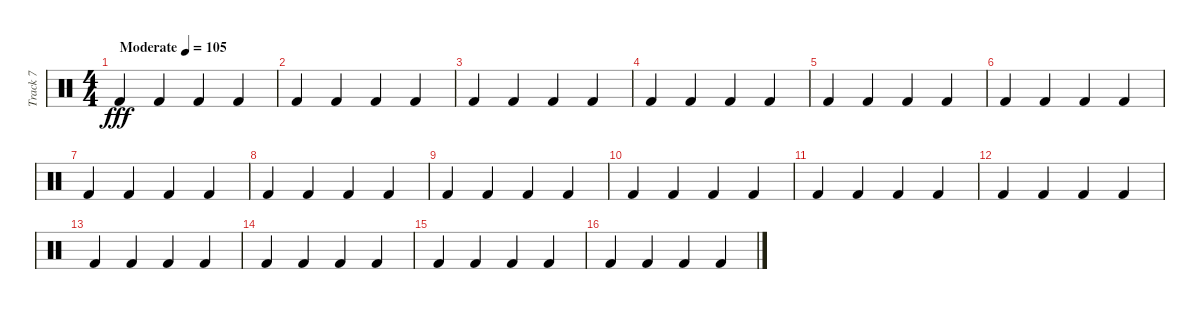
\track ("Track 7" "Track 7") {instrument percussion}
\staff {score}
\articulation defaults
\ts (4 4)
\tempo (105 "Moderate")
\clef neutral
\ks c "Kick (hit) 2".4{dy fff} "Kick (hit) 2".4 "Kick (hit) 2".4 "Kick (hit) 2".4
|
"Kick (hit) 2".4 "Kick (hit) 2".4 "Kick (hit) 2".4 "Kick (hit) 2".4 |
"Kick (hit) 2".4 "Kick (hit) 2".4 "Kick (hit) 2".4 "Kick (hit) 2".4 |
"Kick (hit) 2".4 "Kick (hit) 2".4 "Kick (hit) 2".4 "Kick (hit) 2".4 |
"Kick (hit) 2".4 "Kick (hit) 2".4 "Kick (hit) 2".4 "Kick (hit) 2".4 |
"Kick (hit) 2".4 "Kick (hit) 2".4 "Kick (hit) 2".4 "Kick (hit) 2".4 |
"Kick (hit) 2".4 "Kick (hit) 2".4 "Kick (hit) 2".4 "Kick (hit) 2".4 |
"Kick (hit) 2".4 "Kick (hit) 2".4 "Kick (hit) 2".4 "Kick (hit) 2".4 |
"Kick (hit) 2".4 "Kick (hit) 2".4 "Kick (hit) 2".4 "Kick (hit) 2".4 |
"Kick (hit) 2".4 "Kick (hit) 2".4 "Kick (hit) 2".4 "Kick (hit) 2".4 |
"Kick (hit) 2".4 "Kick (hit) 2".4 "Kick (hit) 2".4 "Kick (hit) 2".4 |
"Kick (hit) 2".4 "Kick (hit) 2".4 "Kick (hit) 2".4 "Kick (hit) 2".4 |
"Kick (hit) 2".4 "Kick (hit) 2".4 "Kick (hit) 2".4 "Kick (hit) 2".4 |
"Kick (hit) 2".4 "Kick (hit) 2".4 "Kick (hit) 2".4 "Kick (hit) 2".4 |
"Kick (hit) 2".4 "Kick (hit) 2".4 "Kick (hit) 2".4 "Kick (hit) 2".4 |
"Kick (hit) 2".4 "Kick (hit) 2".4 "Kick (hit) 2".4 "Kick (hit) 2".4
